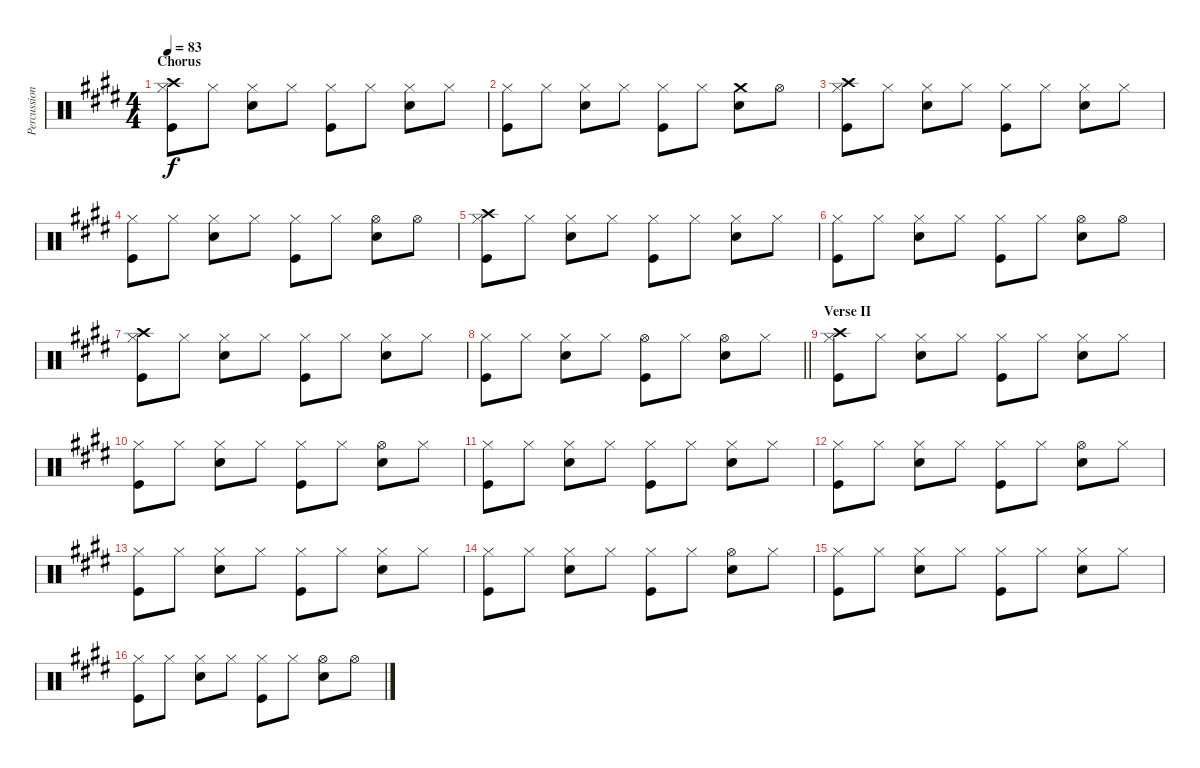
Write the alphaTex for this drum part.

\track ("Percussion" "Percussion") {instrument percussion}
\staff {score}
\articulation defaults
\ts (4 4)
\section ("" "Chorus")
\tempo 83
\clef neutral
\ks e
("Crash high (hit)" "Hi-Hat (closed)" "Kick (hit)").8{dy f} "Hi-Hat (closed)".8 ("Hi-Hat (closed)" "Electric Snare (hit)").8 "Hi-Hat (closed)".8 ("Hi-Hat (closed)" "Kick (hit)").8 "Hi-Hat (closed)".8 ("Hi-Hat (closed)" "Electric Snare (hit)").8 "Hi-Hat (closed)".8 |
("Hi-Hat (closed)" "Kick (hit)").8 "Hi-Hat (closed)".8 ("Hi-Hat (closed)" "Electric Snare (hit)").8 "Hi-Hat (closed)".8 ("Hi-Hat (closed)" "Kick (hit)").8 "Hi-Hat (closed)".8 ("Crash medium (hit)" "Electric Snare (hit)").8 "Hi-Hat (open)".8 |
("Crash high (hit)" "Hi-Hat (closed)" "Kick (hit)").8 "Hi-Hat (closed)".8 ("Hi-Hat (closed)" "Electric Snare (hit)").8 "Hi-Hat (closed)".8 ("Hi-Hat (closed)" "Kick (hit)").8 "Hi-Hat (closed)".8 ("Hi-Hat (closed)" "Electric Snare (hit)").8 "Hi-Hat (closed)".8 |
("Hi-Hat (closed)" "Kick (hit)").8 "Hi-Hat (closed)".8 ("Hi-Hat (closed)" "Electric Snare (hit)").8 "Hi-Hat (closed)".8 ("Hi-Hat (closed)" "Kick (hit)").8 "Hi-Hat (closed)".8 ("Hi-Hat (open)" "Electric Snare (hit)").8 "Hi-Hat (open)".8 |
("Crash high (hit)" "Hi-Hat (closed)" "Kick (hit)").8 "Hi-Hat (closed)".8 ("Hi-Hat (closed)" "Electric Snare (hit)").8 "Hi-Hat (closed)".8 ("Hi-Hat (closed)" "Kick (hit)").8 "Hi-Hat (closed)".8 ("Hi-Hat (closed)" "Electric Snare (hit)").8 "Hi-Hat (closed)".8 |
("Hi-Hat (closed)" "Kick (hit)").8 "Hi-Hat (closed)".8 ("Hi-Hat (closed)" "Electric Snare (hit)").8 "Hi-Hat (closed)".8 ("Hi-Hat (closed)" "Kick (hit)").8 "Hi-Hat (closed)".8 ("Hi-Hat (open)" "Electric Snare (hit)").8 "Hi-Hat (open)".8 |
("Crash high (hit)" "Hi-Hat (closed)" "Kick (hit)").8 "Hi-Hat (closed)".8 ("Hi-Hat (closed)" "Electric Snare (hit)").8 "Hi-Hat (closed)".8 ("Hi-Hat (closed)" "Kick (hit)").8 "Hi-Hat (closed)".8 ("Hi-Hat (closed)" "Electric Snare (hit)").8 "Hi-Hat (closed)".8 |
\barLineRight lightlight
("Hi-Hat (closed)" "Kick (hit)").8 "Hi-Hat (closed)".8 ("Hi-Hat (closed)" "Electric Snare (hit)").8 "Hi-Hat (closed)".8 ("Hi-Hat (open)" "Kick (hit)").8 "Hi-Hat (closed)".8 ("Hi-Hat (open)" "Electric Snare (hit)").8 "Hi-Hat (closed)".8 |
\section ("" "Verse II")
("Crash high (hit)" "Hi-Hat (closed)" "Kick (hit)").8 "Hi-Hat (closed)".8 ("Hi-Hat (closed)" "Electric Snare (hit)").8 "Hi-Hat (closed)".8 ("Hi-Hat (closed)" "Kick (hit)").8 "Hi-Hat (closed)".8 ("Hi-Hat (closed)" "Electric Snare (hit)").8 "Hi-Hat (closed)".8 |
("Hi-Hat (closed)" "Kick (hit)").8 "Hi-Hat (closed)".8 ("Hi-Hat (closed)" "Electric Snare (hit)").8 "Hi-Hat (closed)".8 ("Hi-Hat (closed)" "Kick (hit)").8 "Hi-Hat (closed)".8 ("Hi-Hat (open)" "Electric Snare (hit)").8 "Hi-Hat (closed)".8 |
("Hi-Hat (closed)" "Kick (hit)").8 "Hi-Hat (closed)".8 ("Hi-Hat (closed)" "Electric Snare (hit)").8 "Hi-Hat (closed)".8 ("Hi-Hat (closed)" "Kick (hit)").8 "Hi-Hat (closed)".8 ("Hi-Hat (closed)" "Electric Snare (hit)").8 "Hi-Hat (closed)".8 |
("Hi-Hat (closed)" "Kick (hit)").8 "Hi-Hat (closed)".8 ("Hi-Hat (closed)" "Electric Snare (hit)").8 "Hi-Hat (closed)".8 ("Hi-Hat (closed)" "Kick (hit)").8 "Hi-Hat (closed)".8 ("Hi-Hat (open)" "Electric Snare (hit)").8 "Hi-Hat (closed)".8 |
("Hi-Hat (closed)" "Kick (hit)").8 "Hi-Hat (closed)".8 ("Hi-Hat (closed)" "Electric Snare (hit)").8 "Hi-Hat (closed)".8 ("Hi-Hat (closed)" "Kick (hit)").8 "Hi-Hat (closed)".8 ("Hi-Hat (closed)" "Electric Snare (hit)").8 "Hi-Hat (closed)".8 |
("Hi-Hat (closed)" "Kick (hit)").8 "Hi-Hat (closed)".8 ("Hi-Hat (closed)" "Electric Snare (hit)").8 "Hi-Hat (closed)".8 ("Hi-Hat (closed)" "Kick (hit)").8 "Hi-Hat (closed)".8 ("Hi-Hat (open)" "Electric Snare (hit)").8 "Hi-Hat (closed)".8 |
("Hi-Hat (closed)" "Kick (hit)").8 "Hi-Hat (closed)".8 ("Hi-Hat (closed)" "Electric Snare (hit)").8 "Hi-Hat (closed)".8 ("Hi-Hat (closed)" "Kick (hit)").8 "Hi-Hat (closed)".8 ("Hi-Hat (closed)" "Electric Snare (hit)").8 "Hi-Hat (closed)".8 |
("Hi-Hat (closed)" "Kick (hit)").8 "Hi-Hat (closed)".8 ("Hi-Hat (closed)" "Electric Snare (hit)").8 "Hi-Hat (closed)".8 ("Hi-Hat (closed)" "Kick (hit)").8 "Hi-Hat (closed)".8 ("Hi-Hat (open)" "Electric Snare (hit)").8 "Hi-Hat (open)".8
